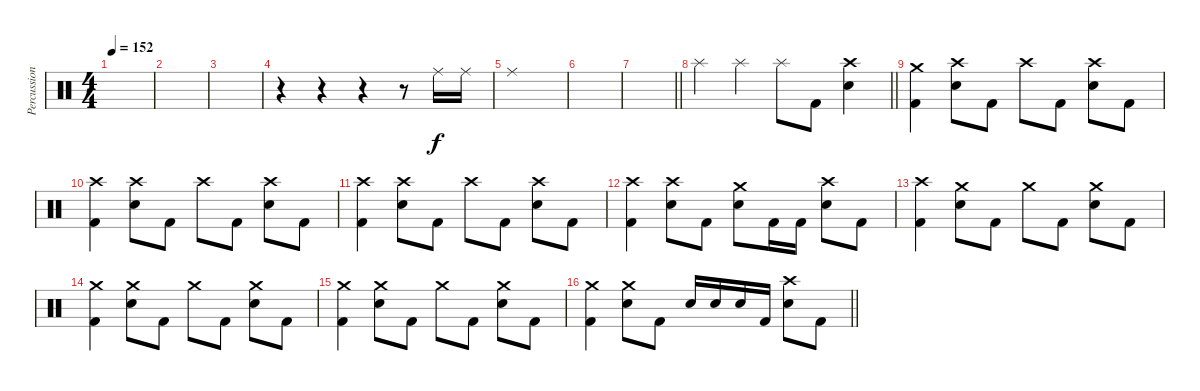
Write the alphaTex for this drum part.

\track ("Percussion" "Percussion") {instrument percussion}
\staff {score}
\articulation defaults
\ts (4 4)
\tempo 152
\clef neutral
\ks c
|
|
|
r.4 r.4 r.4 r.8 "Ride (middle)".16 "Ride (middle)".16 |
"Ride (middle)".1 |
|
\barLineRight lightlight
|
\barLineRight lightlight "Splash (hit)".4 "Splash (hit)".4 "Splash (hit)".8 "Kick (hit) 2".8
("Crash high (hit)" "Snare (hit) 2").4 |
("Crash medium (hit)" "Kick (hit) 2").4 ("Crash high (hit)" "Snare (hit) 2").8 "Kick (hit) 2".8 "Crash high (hit)".8 "Kick (hit) 2".8 ("Crash high (hit)" "Snare (hit) 2").8 "Kick (hit) 2".8 |
("Crash high (hit)" "Kick (hit) 2").4 ("Crash high (hit)" "Snare (hit) 2").8 "Kick (hit) 2".8 "Crash high (hit)".8 "Kick (hit) 2".8 ("Crash high (hit)" "Snare (hit) 2").8 "Kick (hit) 2".8 |
("Crash high (hit)" "Kick (hit) 2").4 ("Crash high (hit)" "Snare (hit) 2").8 "Kick (hit) 2".8 "Crash high (hit)".8 "Kick (hit) 2".8 ("Crash high (hit)" "Snare (hit) 2").8 "Kick (hit) 2".8 |
("Crash high (hit)" "Kick (hit) 2").4 ("Crash high (hit)" "Snare (hit) 2").8 "Kick (hit) 2".8 ("Crash medium (hit)" "Snare (hit) 2").8 "Kick (hit) 2".16 "Kick (hit) 2".16 ("Crash high (hit)" "Snare (hit) 2").8 "Kick (hit) 2".8 |
("Crash high (hit)" "Kick (hit) 2").4 ("Crash medium (hit)" "Snare (hit) 2").8 "Kick (hit) 2".8 "Crash medium (hit)".8 "Kick (hit) 2".8 ("Crash medium (hit)" "Snare (hit) 2").8 "Kick (hit) 2".8 |
("Crash medium (hit)" "Kick (hit) 2").4 ("Crash medium (hit)" "Snare (hit) 2").8 "Kick (hit) 2".8 "Crash medium (hit)".8 "Kick (hit) 2".8 ("Crash medium (hit)" "Snare (hit) 2").8 "Kick (hit) 2".8 |
("Crash medium (hit)" "Kick (hit) 2").4 ("Crash medium (hit)" "Snare (hit) 2").8 "Kick (hit) 2".8 "Crash medium (hit)".8 "Kick (hit) 2".8 ("Crash medium (hit)" "Snare (hit) 2").8 "Kick (hit) 2".8 |
\barLineRight lightlight
("Crash medium (hit)" "Kick (hit) 2").4 ("Crash medium (hit)" "Snare (hit) 2").8 "Kick (hit) 2".8 "Snare (hit) 2".16 "Snare (hit) 2".16 "Snare (hit) 2".16 "Kick (hit) 2".16 ("Crash high (hit)" "Snare (hit) 2").8 "Kick (hit) 2".8
